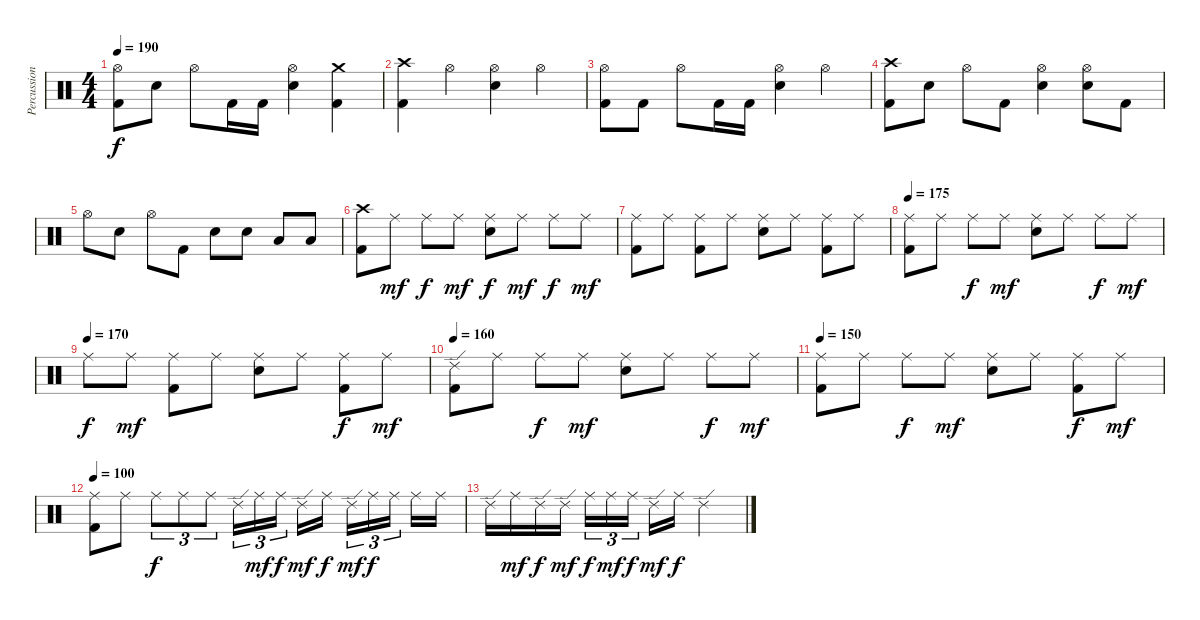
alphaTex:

\track ("Percussion" "Percussion") {instrument percussion}
\staff {score}
\articulation defaults
\ts (4 4)
\tempo 190
\clef neutral
\ks c
("Hi-Hat (open)" "Kick (hit) 2").8{dy f} "Electric Snare (hit)".8 "Hi-Hat (open)".8 "Kick (hit) 2".16 "Kick (hit) 2".16 ("Hi-Hat (open)" "Electric Snare (hit)").4 ("Crash medium (hit)" "Kick (hit) 2").4 |
("Crash high (hit)" "Kick (hit) 2").4 "Hi-Hat (open)".4 ("Hi-Hat (open)" "Electric Snare (hit)").4 "Hi-Hat (open)".4 |
("Hi-Hat (open)" "Kick (hit) 2").8 "Kick (hit) 2".8 "Hi-Hat (open)".8 "Kick (hit) 2".16 "Kick (hit) 2".16 ("Hi-Hat (open)" "Electric Snare (hit)").4 "Hi-Hat (open)".4 |
("Crash high (hit)" "Kick (hit) 2").8 "Electric Snare (hit)".8 "Hi-Hat (open)".8 "Kick (hit) 2".8 ("Hi-Hat (open)" "Electric Snare (hit)").4 ("Hi-Hat (open)" "Electric Snare (hit)").8 "Kick (hit) 2".8 |
"Hi-Hat (open)".8 "Electric Snare (hit)".8 "Hi-Hat (open)".8 "Kick (hit) 2".8 "Electric Snare (hit)".8 "Electric Snare (hit)".8 "Low Tom (hit)".8 "Low Floor Tom (hit)".8 |
("Crash high (hit)" "Kick (hit) 2").8 "Ride (middle)".8{dy mf} "Ride (middle)".8{dy f} "Ride (middle)".8{dy mf} ("Ride (middle)" "Electric Snare (hit)").8{dy f} "Ride (middle)".8{dy mf} "Ride (middle)".8{dy f} "Ride (middle)".8{dy mf} |
("Ride (middle)" "Kick (hit) 2").8 "Ride (middle)".8 ("Ride (middle)" "Kick (hit) 2").8 "Ride (middle)".8 ("Ride (middle)" "Electric Snare (hit)").8 "Ride (middle)".8 ("Ride (middle)" "Kick (hit) 2").8 "Ride (middle)".8 |
\tempo 175
("Ride (middle)" "Kick (hit) 2").8 "Ride (middle)".8 "Ride (middle)".8{dy f} "Ride (middle)".8{dy mf} ("Ride (middle)" "Electric Snare (hit)").8 "Ride (middle)".8 "Ride (middle)".8{dy f} "Ride (middle)".8{dy mf} |
\tempo (170)
"Ride (middle)".8{dy f} "Ride (middle)".8{dy mf} ("Ride (middle)" "Kick (hit) 2").8 "Ride (middle)".8 ("Ride (middle)" "Electric Snare (hit)").8 "Ride (middle)".8 ("Ride (middle)" "Kick (hit) 2").8{dy f} "Ride (middle)".8{dy mf} |
\tempo 160
("Ride (edge) 2" "Kick (hit) 2").8 "Ride (middle)".8 "Ride (middle)".8{dy f} "Ride (middle)".8{dy mf} ("Ride (middle)" "Electric Snare (hit)").8 "Ride (middle)".8 "Ride (middle)".8{dy f} "Ride (middle)".8{dy mf} |
\tempo 150
("Ride (middle)" "Kick (hit) 2").8 "Ride (middle)".8 "Ride (middle)".8{dy f} "Ride (middle)".8{dy mf} ("Ride (middle)" "Electric Snare (hit)").8 "Ride (middle)".8 ("Ride (middle)" "Kick (hit) 2").8{dy f} "Ride (middle)".8{dy mf} |
\tempo 100
("Ride (middle)" "Kick (hit) 2").8 "Ride (middle)".8 "Ride (middle)".8{tu (3 2) dy f} "Ride (middle)".8{tu (3 2)} "Ride (middle)".8{tu (3 2)} "Ride (edge) 2".16{tu (3 2)} "Ride (middle)".16{tu (3 2) dy mf} "Ride (middle)".16{tu (3 2) dy f beam splitsecondary} "Ride (edge) 2".16{dy mf} "Ride (middle)".16{dy f} "Ride (edge) 2".16{tu (3 2) dy mf} "Ride (middle)".16{tu (3 2) dy f} "Ride (middle)".16{tu (3 2) beam splitsecondary} "Ride (middle)".16 "Ride (middle)".16 |
"Ride (edge) 2".16 "Ride (middle)".16{dy mf} "Ride (edge) 2".16{dy f} "Ride (edge) 2".16{dy mf} "Ride (middle)".16{tu (3 2) dy f} "Ride (middle)".16{tu (3 2) dy mf} "Ride (middle)".16{tu (3 2) dy f beam splitsecondary} "Ride (edge) 2".16{dy mf} "Ride (middle)".16{dy f} "Ride (edge) 2".2
